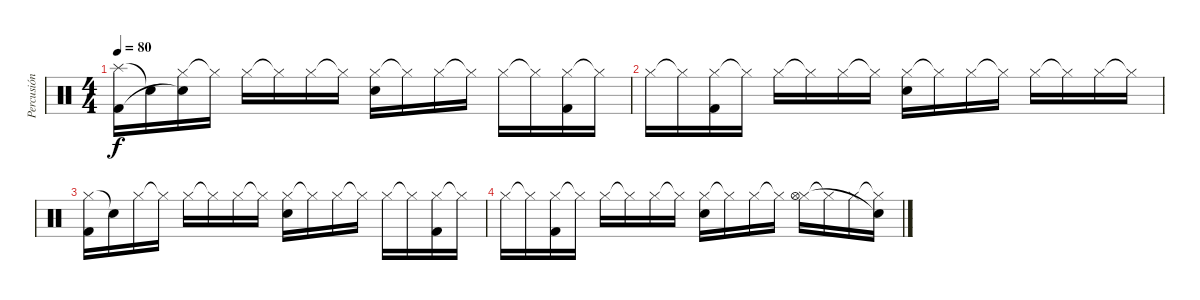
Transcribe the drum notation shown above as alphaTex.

\track ("Percusión" "Percusión") {instrument percussion}
\staff {score}
\articulation defaults
\ts (4 4)
\tempo 80
\clef neutral
\ks c
("Splash (hit)" "Kick (hit) 2").16{dy f} "Snare (hit)"{t}.16 ("Hi-Hat (closed)" "Snare (hit)"{t}).16 "Hi-Hat (closed)"{t}.16 "Hi-Hat (closed)".16 "Hi-Hat (closed)"{t}.16 "Hi-Hat (closed)".16 "Hi-Hat (closed)"{t}.16 ("Hi-Hat (closed)" "Snare (hit) 2").16 "Hi-Hat (closed)"{t}.16 "Hi-Hat (closed)".16 "Hi-Hat (closed)"{t}.16 "Hi-Hat (closed)".16 "Hi-Hat (closed)"{t}.16 ("Hi-Hat (closed)" "Kick (hit) 2").16 "Hi-Hat (closed)"{t}.16 |
"Hi-Hat (closed)".16 "Hi-Hat (closed)"{t}.16 ("Hi-Hat (closed)" "Kick (hit) 2").16 "Hi-Hat (closed)"{t}.16 "Hi-Hat (closed)".16 "Hi-Hat (closed)"{t}.16 "Hi-Hat (closed)".16 "Hi-Hat (closed)"{t}.16 ("Hi-Hat (closed)" "Snare (hit) 2").16 "Hi-Hat (closed)"{t}.16 "Hi-Hat (closed)".16 "Hi-Hat (closed)"{t}.16 "Hi-Hat (closed)".16 "Hi-Hat (closed)"{t}.16 "Hi-Hat (closed)".16 "Hi-Hat (closed)"{t}.16 |
("Hi-Hat (closed)" "Kick (hit) 2").16 "Snare (hit)"{t}.16 "Hi-Hat (closed)".16 "Hi-Hat (closed)"{t}.16 "Hi-Hat (closed)".16 "Hi-Hat (closed)"{t}.16 "Hi-Hat (closed)".16 "Hi-Hat (closed)"{t}.16 ("Hi-Hat (closed)" "Snare (hit) 2").16 "Hi-Hat (closed)"{t}.16 "Hi-Hat (closed)".16 "Hi-Hat (closed)"{t}.16 "Hi-Hat (closed)".16 "Hi-Hat (closed)"{t}.16 ("Hi-Hat (closed)" "Kick (hit) 2").16 "Hi-Hat (closed)"{t}.16 |
"Hi-Hat (closed)".16 "Hi-Hat (closed)"{t}.16 ("Hi-Hat (closed)" "Kick (hit) 2").16 "Hi-Hat (closed)"{t}.16 "Hi-Hat (closed)".16 "Hi-Hat (closed)"{t}.16 "Hi-Hat (closed)".16 "Hi-Hat (closed)"{t}.16 ("Hi-Hat (closed)" "Snare (hit) 2").16 "Hi-Hat (closed)"{t}.16 "Hi-Hat (closed)".16 "Hi-Hat (closed)"{t}.16 ("Hi-Hat (closed)" "Hi-Hat (open)").16 "Hi-Hat (closed)"{t}.16 "Hi-Hat (closed)".16 ("Hi-Hat (closed)"{t} "Snare (hit)"{t}).16
